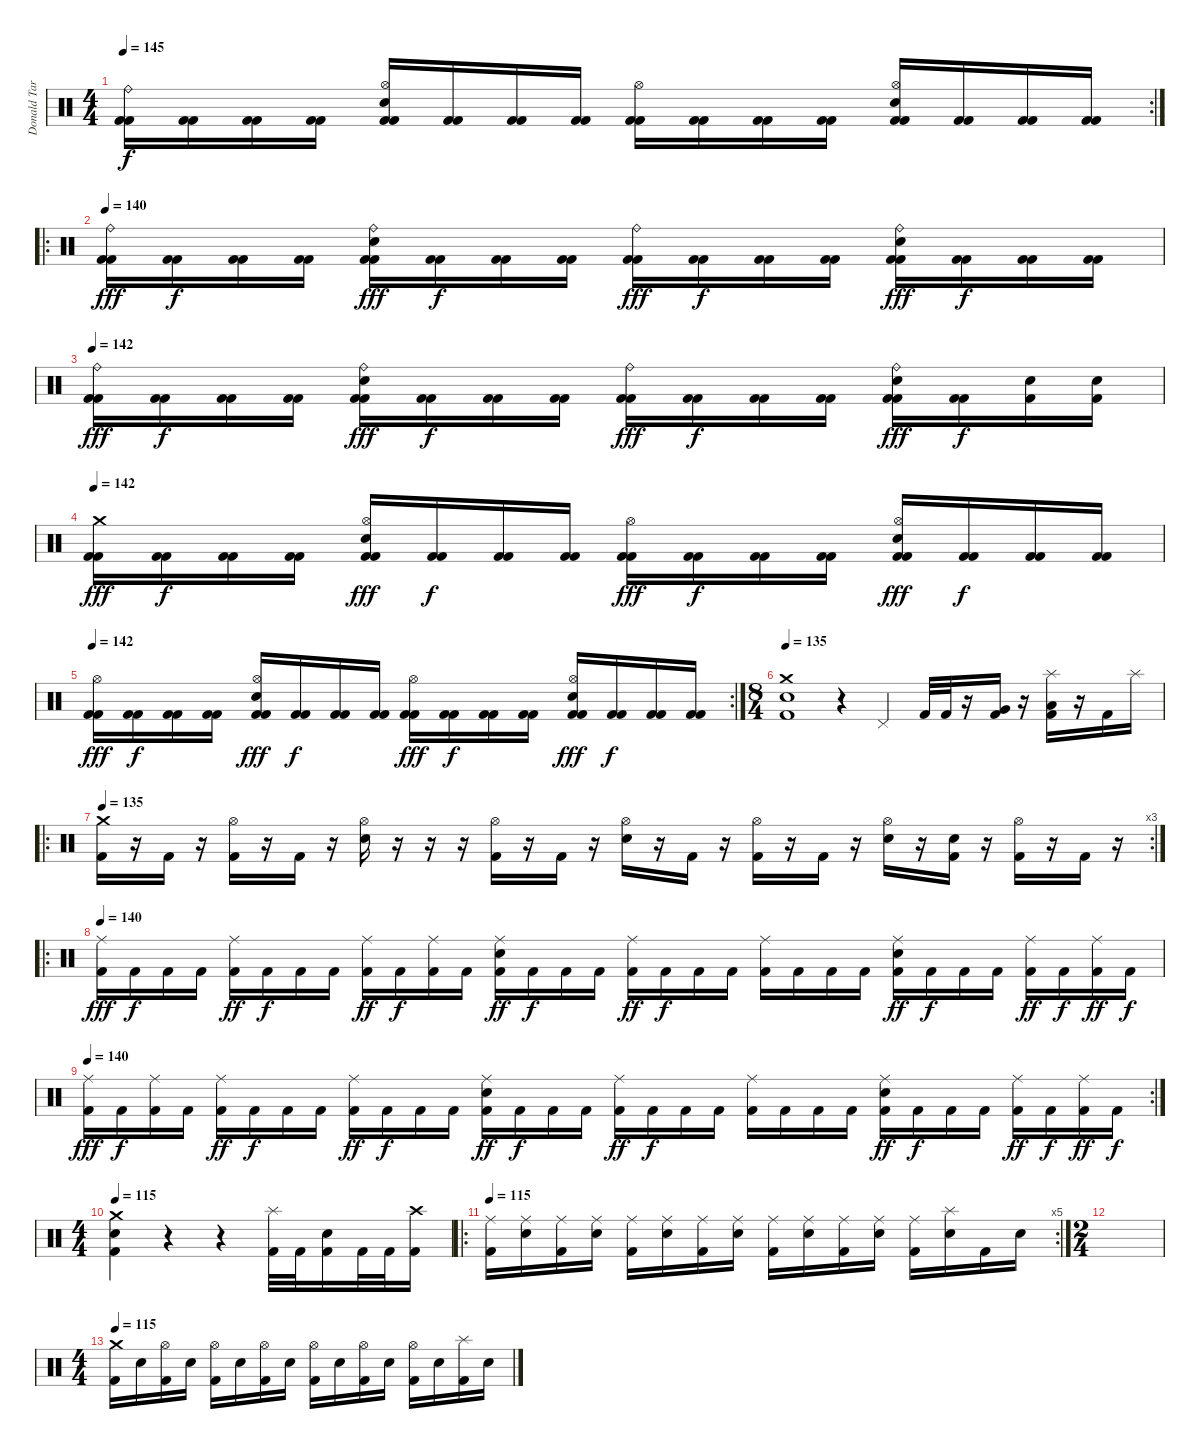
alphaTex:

\track ("Donald Tardy" "Donald Tar") {instrument percussion}
\staff {score}
\articulation defaults
\rc 2
\ts (4 4)
\tempo 145
\clef neutral
\ks c
("Ride (bell)" "Kick (hit) 2" "Kick (hit) 2").16{dy f} ("Kick (hit) 2" "Kick (hit) 2").16 ("Kick (hit) 2" "Kick (hit) 2").16 ("Kick (hit) 2" "Kick (hit) 2").16 ("Hi-Hat (open)" "Electric Snare (hit)" "Kick (hit) 2" "Kick (hit) 2").16 ("Kick (hit) 2" "Kick (hit) 2").16 ("Kick (hit) 2" "Kick (hit) 2").16 ("Kick (hit) 2" "Kick (hit) 2").16 ("Hi-Hat (open)" "Kick (hit) 2" "Kick (hit) 2").16 ("Kick (hit) 2" "Kick (hit) 2").16 ("Kick (hit) 2" "Kick (hit) 2").16 ("Kick (hit) 2" "Kick (hit) 2").16 ("Hi-Hat (open)" "Electric Snare (hit)" "Kick (hit) 2" "Kick (hit) 2").16 ("Kick (hit) 2" "Kick (hit) 2").16 ("Kick (hit) 2" "Kick (hit) 2").16 ("Kick (hit) 2" "Kick (hit) 2").16 |
\ro
\tempo 140
("Ride (bell)" "Kick (hit) 2" "Kick (hit) 2").16{dy fff} ("Kick (hit) 2" "Kick (hit) 2").16{dy f} ("Kick (hit) 2" "Kick (hit) 2").16 ("Kick (hit) 2" "Kick (hit) 2").16 ("Ride (bell)" "Electric Snare (hit)" "Kick (hit) 2" "Kick (hit) 2").16{dy fff} ("Kick (hit) 2" "Kick (hit) 2").16{dy f} ("Kick (hit) 2" "Kick (hit) 2").16 ("Kick (hit) 2" "Kick (hit) 2").16 ("Ride (bell)" "Kick (hit) 2" "Kick (hit) 2").16{dy fff} ("Kick (hit) 2" "Kick (hit) 2").16{dy f} ("Kick (hit) 2" "Kick (hit) 2").16 ("Kick (hit) 2" "Kick (hit) 2").16 ("Ride (bell)" "Electric Snare (hit)" "Kick (hit) 2" "Kick (hit) 2").16{dy fff} ("Kick (hit) 2" "Kick (hit) 2").16{dy f} ("Kick (hit) 2" "Kick (hit) 2").16 ("Kick (hit) 2" "Kick (hit) 2").16 |
\tempo 142
("Ride (bell)" "Kick (hit) 2" "Kick (hit) 2").16{dy fff} ("Kick (hit) 2" "Kick (hit) 2").16{dy f} ("Kick (hit) 2" "Kick (hit) 2").16 ("Kick (hit) 2" "Kick (hit) 2").16 ("Ride (bell)" "Electric Snare (hit)" "Kick (hit) 2" "Kick (hit) 2").16{dy fff} ("Kick (hit) 2" "Kick (hit) 2").16{dy f} ("Kick (hit) 2" "Kick (hit) 2").16 ("Kick (hit) 2" "Kick (hit) 2").16 ("Ride (bell)" "Kick (hit) 2" "Kick (hit) 2").16{dy fff} ("Kick (hit) 2" "Kick (hit) 2").16{dy f} ("Kick (hit) 2" "Kick (hit) 2").16 ("Kick (hit) 2" "Kick (hit) 2").16 ("Ride (bell)" "Electric Snare (hit)" "Kick (hit) 2" "Kick (hit) 2").16{dy fff} ("Kick (hit) 2" "Kick (hit) 2").16{dy f} ("Electric Snare (hit)" "Kick (hit) 2").16 ("Electric Snare (hit)" "Kick (hit) 2").16 |
\tempo 142
("Crash medium (hit)" "Kick (hit) 2" "Kick (hit) 2").16{dy fff} ("Kick (hit) 2" "Kick (hit) 2").16{dy f} ("Kick (hit) 2" "Kick (hit) 2").16 ("Kick (hit) 2" "Kick (hit) 2").16 ("Hi-Hat (open)" "Electric Snare (hit)" "Kick (hit) 2" "Kick (hit) 2").16{dy fff} ("Kick (hit) 2" "Kick (hit) 2").16{dy f} ("Kick (hit) 2" "Kick (hit) 2").16 ("Kick (hit) 2" "Kick (hit) 2").16 ("Hi-Hat (open)" "Kick (hit) 2" "Kick (hit) 2").16{dy fff} ("Kick (hit) 2" "Kick (hit) 2").16{dy f} ("Kick (hit) 2" "Kick (hit) 2").16 ("Kick (hit) 2" "Kick (hit) 2").16 ("Hi-Hat (open)" "Electric Snare (hit)" "Kick (hit) 2" "Kick (hit) 2").16{dy fff} ("Kick (hit) 2" "Kick (hit) 2").16{dy f} ("Kick (hit) 2" "Kick (hit) 2").16 ("Kick (hit) 2" "Kick (hit) 2").16 |
\rc 2
\tempo 142
("Hi-Hat (open)" "Kick (hit) 2" "Kick (hit) 2").16{dy fff} ("Kick (hit) 2" "Kick (hit) 2").16{dy f} ("Kick (hit) 2" "Kick (hit) 2").16 ("Kick (hit) 2" "Kick (hit) 2").16 ("Hi-Hat (open)" "Electric Snare (hit)" "Kick (hit) 2" "Kick (hit) 2").16{dy fff} ("Kick (hit) 2" "Kick (hit) 2").16{dy f} ("Kick (hit) 2" "Kick (hit) 2").16 ("Kick (hit) 2" "Kick (hit) 2").16 ("Hi-Hat (open)" "Kick (hit) 2" "Kick (hit) 2").16{dy fff} ("Kick (hit) 2" "Kick (hit) 2").16{dy f} ("Kick (hit) 2" "Kick (hit) 2").16 ("Kick (hit) 2" "Kick (hit) 2").16 ("Hi-Hat (open)" "Electric Snare (hit)" "Kick (hit) 2" "Kick (hit) 2").16{dy fff} ("Kick (hit) 2" "Kick (hit) 2").16{dy f} ("Kick (hit) 2" "Kick (hit) 2").16 ("Kick (hit) 2" "Kick (hit) 2").16 |
\ts (8 4)
\tempo 135
("Crash medium (hit)" "Electric Snare (hit)" "Kick (hit) 2").1 r.4 "Pedal Hi-Hat (hit)".4 "Kick (hit) 2".32 "Kick (hit) 2".32 r.16 ("Very Low Tom (hit)" "Kick (hit) 2").16 r.16 ("Splash (hit)" "Low Floor Tom (hit)" "Kick (hit) 2").16 r.16 "Kick (hit) 2".16 "Splash (hit)".16 |
\ro
\rc 3
\tempo 135
("Crash medium (hit)" "Kick (hit) 2").16 r.16 "Kick (hit) 2".16 r.16 ("Hi-Hat (open)" "Kick (hit) 2").16 r.16 "Kick (hit) 2".16 r.16 ("Hi-Hat (open)" "Electric Snare (hit)").16 r.16 r.16 r.16 ("Hi-Hat (open)" "Kick (hit) 2").16 r.16 "Kick (hit) 2".16 r.16 ("Hi-Hat (open)" "Electric Snare (hit)").16 r.16 "Kick (hit) 2".16 r.16 ("Hi-Hat (open)" "Kick (hit) 2").16 r.16 "Kick (hit) 2".16 r.16 ("Hi-Hat (open)" "Electric Snare (hit)").16 r.16 ("Electric Snare (hit)" "Kick (hit) 2").16 r.16 ("Hi-Hat (open)" "Kick (hit) 2").16 r.16 "Kick (hit) 2".16 r.16 |
\ro
\tempo 140
("Ride (middle)" "Kick (hit) 2").16{dy fff} "Kick (hit) 2".16{dy f} "Kick (hit) 2".16 "Kick (hit) 2".16 ("Ride (middle)" "Kick (hit) 2").16{dy ff} "Kick (hit) 2".16{dy f} "Kick (hit) 2".16 "Kick (hit) 2".16 ("Ride (middle)" "Kick (hit) 2").16{dy ff} "Kick (hit) 2".16{dy f} ("Ride (middle)" "Kick (hit) 2").16 "Kick (hit) 2".16 ("Ride (middle)" "Electric Snare (hit)" "Kick (hit) 2").16{dy ff} "Kick (hit) 2".16{dy f} "Kick (hit) 2".16 "Kick (hit) 2".16 ("Ride (middle)" "Kick (hit) 2").16{dy ff} "Kick (hit) 2".16{dy f} "Kick (hit) 2".16 "Kick (hit) 2".16 ("Ride (middle)" "Kick (hit) 2").16 "Kick (hit) 2".16 "Kick (hit) 2".16 "Kick (hit) 2".16 ("Ride (middle)" "Electric Snare (hit)" "Kick (hit) 2").16{dy ff} "Kick (hit) 2".16{dy f} "Kick (hit) 2".16 "Kick (hit) 2".16 ("Ride (middle)" "Kick (hit) 2").16{dy ff} "Kick (hit) 2".16{dy f} ("Ride (middle)" "Kick (hit) 2").16{dy ff} "Kick (hit) 2".16{dy f} |
\rc 2
\tempo 140
("Ride (middle)" "Kick (hit) 2").16{dy fff} "Kick (hit) 2".16{dy f} ("Ride (middle)" "Kick (hit) 2").16 "Kick (hit) 2".16 ("Ride (middle)" "Kick (hit) 2").16{dy ff} "Kick (hit) 2".16{dy f} "Kick (hit) 2".16 "Kick (hit) 2".16 ("Ride (middle)" "Kick (hit) 2").16{dy ff} "Kick (hit) 2".16{dy f} "Kick (hit) 2".16 "Kick (hit) 2".16 ("Ride (middle)" "Electric Snare (hit)" "Kick (hit) 2").16{dy ff} "Kick (hit) 2".16{dy f} "Kick (hit) 2".16 "Kick (hit) 2".16 ("Ride (middle)" "Kick (hit) 2").16{dy ff} "Kick (hit) 2".16{dy f} "Kick (hit) 2".16 "Kick (hit) 2".16 ("Ride (middle)" "Kick (hit) 2").16 "Kick (hit) 2".16 "Kick (hit) 2".16 "Kick (hit) 2".16 ("Ride (middle)" "Electric Snare (hit)" "Kick (hit) 2").16{dy ff} "Kick (hit) 2".16{dy f} "Kick (hit) 2".16 "Kick (hit) 2".16 ("Ride (middle)" "Kick (hit) 2").16{dy ff} "Kick (hit) 2".16{dy f} ("Ride (middle)" "Kick (hit) 2").16{dy ff} "Kick (hit) 2".16{dy f} |
\ts (4 4)
\tempo 115
("Crash medium (hit)" "Electric Snare (hit)" "Kick (hit) 2").4 r.4 r.4 ("Splash (hit)" "Kick (hit) 2").32 "Kick (hit) 2".32 ("Electric Snare (hit)" "Kick (hit) 2").16 "Kick (hit) 2".32 "Kick (hit) 2".32 ("Crash high (hit)" "Kick (hit) 2").16 |
\ro
\rc 5
\tempo 115
("Ride (middle)" "Kick (hit) 2").16 ("Ride (middle)" "Electric Snare (hit)").16 ("Ride (middle)" "Kick (hit) 2").16 ("Ride (middle)" "Electric Snare (hit)").16 ("Ride (middle)" "Kick (hit) 2").16 ("Ride (middle)" "Electric Snare (hit)").16 ("Ride (middle)" "Kick (hit) 2").16 ("Ride (middle)" "Electric Snare (hit)").16 ("Ride (middle)" "Kick (hit) 2").16 ("Ride (middle)" "Electric Snare (hit)").16 ("Ride (middle)" "Kick (hit) 2").16 ("Ride (middle)" "Electric Snare (hit)").16 ("Ride (middle)" "Kick (hit) 2").16 ("Splash (hit)" "Electric Snare (hit)").16 "Kick (hit) 2".16 "Electric Snare (hit)".16 |
\ts (2 4)
|
\ts (4 4)
\tempo 115
("Crash medium (hit)" "Kick (hit) 2").16 "Electric Snare (hit)".16 ("Hi-Hat (open)" "Kick (hit) 2").16 "Electric Snare (hit)".16 ("Hi-Hat (open)" "Kick (hit) 2").16 "Electric Snare (hit)".16 ("Hi-Hat (open)" "Kick (hit) 2").16 "Electric Snare (hit)".16 ("Hi-Hat (open)" "Kick (hit) 2").16 "Electric Snare (hit)".16 ("Hi-Hat (open)" "Kick (hit) 2").16 "Electric Snare (hit)".16 ("Hi-Hat (open)" "Kick (hit) 2").16 "Electric Snare (hit)".16 ("Splash (hit)" "Kick (hit) 2").16 "Electric Snare (hit)".16
